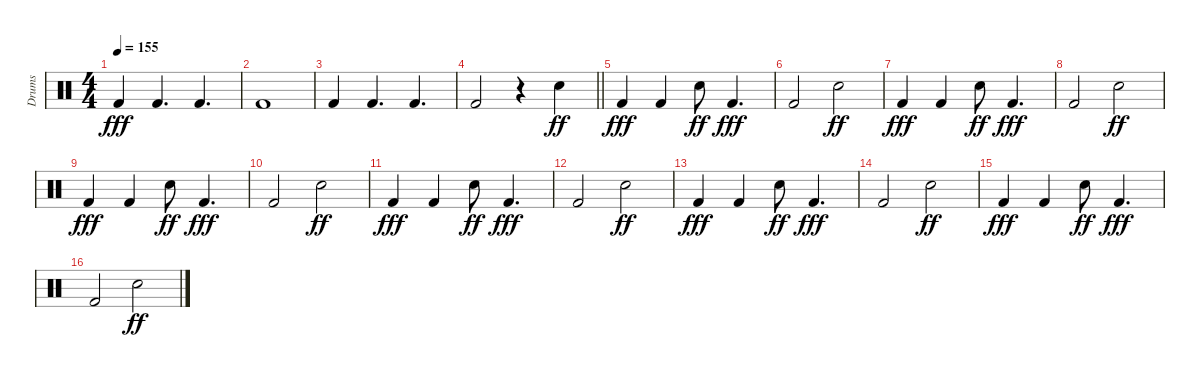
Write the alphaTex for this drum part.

\track ("Drums" "Drums") {instrument percussion}
\staff {score}
\articulation defaults
\ts (4 4)
\tempo 155
\clef neutral
\ks c "Kick (hit) 2".4{dy fff} "Kick (hit) 2".4{d} "Kick (hit) 2".4{d}
|
"Kick (hit) 2".1 |
"Kick (hit) 2".4 "Kick (hit) 2".4{d} "Kick (hit) 2".4{d} |
\barLineRight lightlight "Kick (hit) 2".2
r.4 "Snare (hit) 2".4{dy ff} |
\section ("" "")
"Kick (hit) 2".4{dy fff} "Kick (hit) 2".4 "Snare (hit) 2".8{dy ff} "Kick (hit) 2".4{d dy fff} |
"Kick (hit) 2".2 "Snare (hit) 2".2{dy ff} |
"Kick (hit) 2".4{dy fff} "Kick (hit) 2".4 "Snare (hit) 2".8{dy ff} "Kick (hit) 2".4{d dy fff} |
"Kick (hit) 2".2 "Snare (hit) 2".2{dy ff} |
"Kick (hit) 2".4{dy fff} "Kick (hit) 2".4 "Snare (hit) 2".8{dy ff} "Kick (hit) 2".4{d dy fff} |
"Kick (hit) 2".2 "Snare (hit) 2".2{dy ff} |
"Kick (hit) 2".4{dy fff} "Kick (hit) 2".4 "Snare (hit) 2".8{dy ff} "Kick (hit) 2".4{d dy fff} |
"Kick (hit) 2".2 "Snare (hit) 2".2{dy ff} |
"Kick (hit) 2".4{dy fff} "Kick (hit) 2".4 "Snare (hit) 2".8{dy ff} "Kick (hit) 2".4{d dy fff} |
"Kick (hit) 2".2 "Snare (hit) 2".2{dy ff} |
"Kick (hit) 2".4{dy fff} "Kick (hit) 2".4 "Snare (hit) 2".8{dy ff} "Kick (hit) 2".4{d dy fff} |
"Kick (hit) 2".2 "Snare (hit) 2".2{dy ff}
